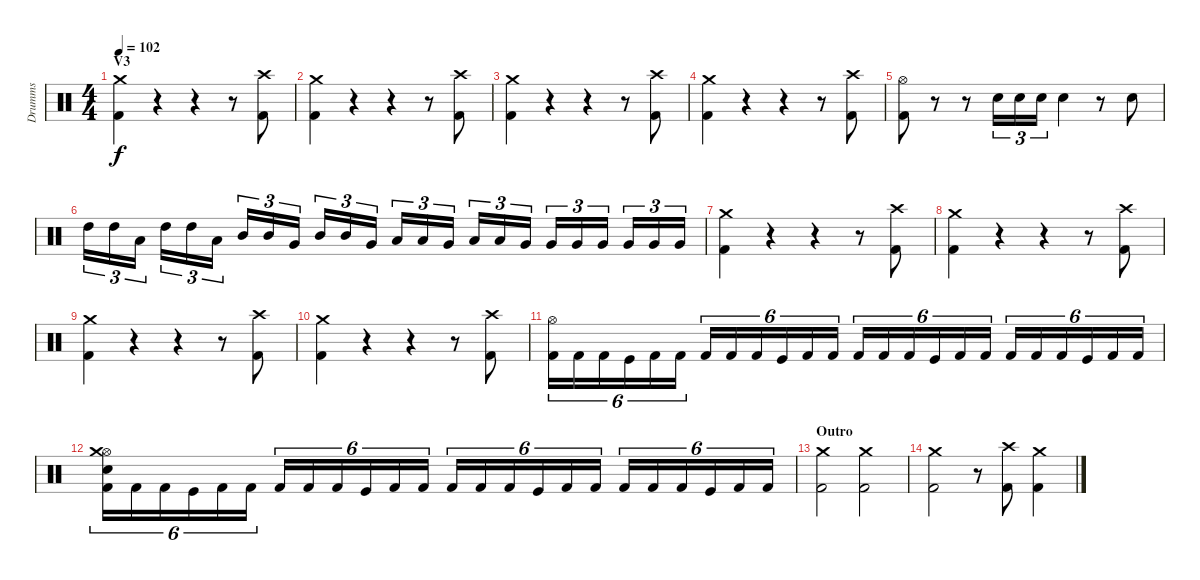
\track ("Drumms" "Drumms") {instrument percussion}
\staff {score}
\articulation defaults
\ts (4 4)
\section ("" "V3")
\tempo 102
\clef neutral
\ks c
("Crash medium (hit)" "Kick (hit) 2").4{dy f} r.4 r.4 r.8 ("Crash high (hit)" "Kick (hit) 2").8 |
("Crash medium (hit)" "Kick (hit) 2").4 r.4 r.4 r.8 ("Crash high (hit)" "Kick (hit) 2").8 |
("Crash medium (hit)" "Kick (hit) 2").4 r.4 r.4 r.8 ("Crash high (hit)" "Kick (hit) 2").8 |
("Crash medium (hit)" "Kick (hit) 2").4 r.4 r.4 r.8 ("Crash high (hit)" "Kick (hit) 2").8 |
("Hi-Hat (open)" "Kick (hit) 2").8 r.8 r.8 "Snare (hit) 2".16{tu (3 2)} "Snare (hit) 2".16{tu (3 2)} "Snare (hit) 2".16{tu (3 2)} "Snare (hit) 2".4 r.8 "Snare (hit) 2".8 |
"High Tom (hit)".16{tu (3 2)} "High Tom (hit)".16{tu (3 2)} "Low Tom (hit)".16{tu (3 2)} "High Tom (hit)".16{tu (3 2)} "High Tom (hit)".16{tu (3 2)} "Low Tom (hit)".16{tu (3 2)} "Mid Tom (hit)".16{tu (3 2)} "Mid Tom (hit)".16{tu (3 2)} "Very Low Tom (hit)".16{tu (3 2)} "Mid Tom (hit)".16{tu (3 2)} "Mid Tom (hit)".16{tu (3 2)} "Very Low Tom (hit)".16{tu (3 2)} "Low Tom (hit)".16{tu (3 2)} "Low Tom (hit)".16{tu (3 2)} "Very Low Tom (hit)".16{tu (3 2)} "Low Tom (hit)".16{tu (3 2)} "Low Tom (hit)".16{tu (3 2)} "Very Low Tom (hit)".16{tu (3 2)} "Very Low Tom (hit)".16{tu (3 2)} "Very Low Tom (hit)".16{tu (3 2)} "Very Low Tom (hit)".16{tu (3 2)} "Very Low Tom (hit)".16{tu (3 2)} "Very Low Tom (hit)".16{tu (3 2)} "Very Low Tom (hit)".16{tu (3 2)} |
("Crash medium (hit)" "Kick (hit) 2").4 r.4 r.4 r.8 ("Crash high (hit)" "Kick (hit) 2").8 |
("Crash medium (hit)" "Kick (hit) 2").4 r.4 r.4 r.8 ("Crash high (hit)" "Kick (hit) 2").8 |
("Crash medium (hit)" "Kick (hit) 2").4 r.4 r.4 r.8 ("Crash high (hit)" "Kick (hit) 2").8 |
("Crash medium (hit)" "Kick (hit) 2").4 r.4 r.4 r.8 ("Crash high (hit)" "Kick (hit) 2").8 |
("Hi-Hat (open)" "Kick (hit) 2").16{tu (6 4) balance 0} "Kick (hit) 2".16{tu (6 4)} "Kick (hit) 2".16{tu (6 4)} "Kick (hit)".16{tu (6 4)} "Kick (hit) 2".16{tu (6 4)} "Kick (hit) 2".16{tu (6 4)} "Kick (hit) 2".16{tu (6 4) balance 13} "Kick (hit) 2".16{tu (6 4)} "Kick (hit) 2".16{tu (6 4)} "Kick (hit)".16{tu (6 4)} "Kick (hit) 2".16{tu (6 4)} "Kick (hit) 2".16{tu (6 4)} "Kick (hit) 2".16{tu (6 4) balance 4} "Kick (hit) 2".16{tu (6 4)} "Kick (hit) 2".16{tu (6 4)} "Kick (hit)".16{tu (6 4)} "Kick (hit) 2".16{tu (6 4)} "Kick (hit) 2".16{tu (6 4)} "Kick (hit) 2".16{tu (6 4) balance 14} "Kick (hit) 2".16{tu (6 4)} "Kick (hit) 2".16{tu (6 4)} "Kick (hit)".16{tu (6 4)} "Kick (hit) 2".16{tu (6 4)} "Kick (hit) 2".16{tu (6 4)} |
("Hi-Hat (open)" "Crash medium (hit)" "Electric Snare (hit)" "Kick (hit) 2").16{tu (6 4) balance 0} "Kick (hit) 2".16{tu (6 4)} "Kick (hit) 2".16{tu (6 4)} "Kick (hit)".16{tu (6 4)} "Kick (hit) 2".16{tu (6 4)} "Kick (hit) 2".16{tu (6 4)} "Kick (hit) 2".16{tu (6 4) balance 13} "Kick (hit) 2".16{tu (6 4)} "Kick (hit) 2".16{tu (6 4)} "Kick (hit)".16{tu (6 4)} "Kick (hit) 2".16{tu (6 4)} "Kick (hit) 2".16{tu (6 4)} "Kick (hit) 2".16{tu (6 4) balance 4} "Kick (hit) 2".16{tu (6 4)} "Kick (hit) 2".16{tu (6 4)} "Kick (hit)".16{tu (6 4)} "Kick (hit) 2".16{tu (6 4)} "Kick (hit) 2".16{tu (6 4)} "Kick (hit) 2".16{tu (6 4) balance 14} "Kick (hit) 2".16{tu (6 4)} "Kick (hit) 2".16{tu (6 4)} "Kick (hit)".16{tu (6 4)} "Kick (hit) 2".16{tu (6 4)} "Kick (hit) 2".16{tu (6 4)} |
\section ("" "Outro")
("Crash medium (hit)" "Kick (hit) 2").2{balance 8} ("Crash medium (hit)" "Kick (hit) 2").2 |
("Crash medium (hit)" "Kick (hit) 2").2 r.8 ("Crash high (hit)" "Kick (hit) 2").8 ("Crash medium (hit)" "Kick (hit) 2").4
